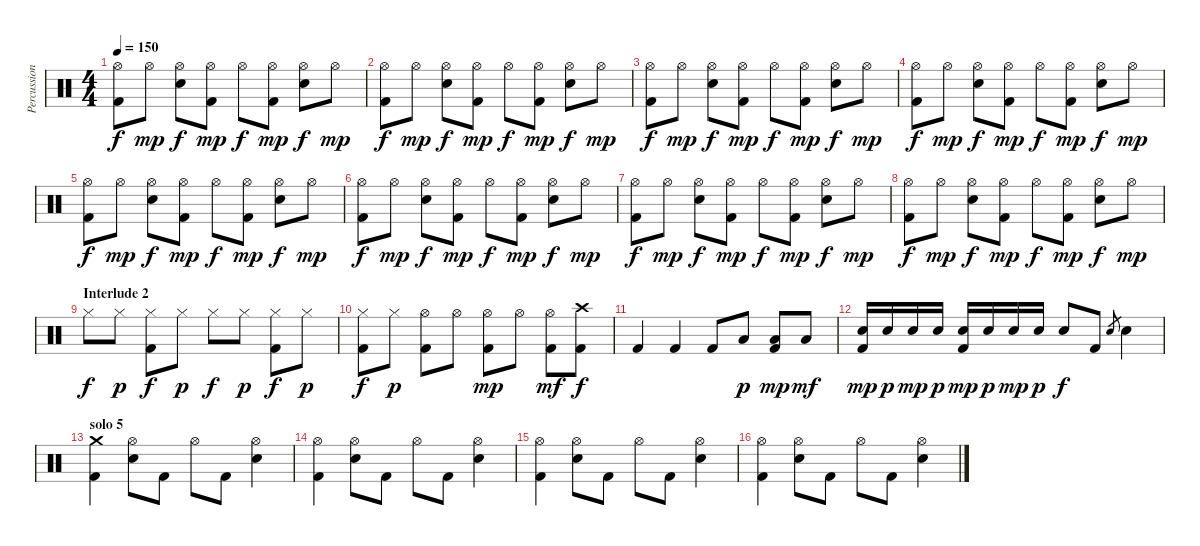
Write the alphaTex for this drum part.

\track ("Percussions" "Percussion") {instrument percussion}
\staff {score}
\articulation defaults
\ts (4 4)
\tempo 150
\clef neutral
\ks c
("Hi-Hat (open)" "Kick (hit) 2").8{dy f} "Hi-Hat (open)".8{dy mp} ("Hi-Hat (open)" "Electric Snare (hit)").8{dy f} ("Hi-Hat (open)" "Kick (hit) 2").8{dy mp} "Hi-Hat (open)".8{dy f} ("Hi-Hat (open)" "Kick (hit) 2").8{dy mp} ("Hi-Hat (open)" "Electric Snare (hit)").8{dy f} "Hi-Hat (open)".8{dy mp} |
("Hi-Hat (open)" "Kick (hit) 2").8{dy f} "Hi-Hat (open)".8{dy mp} ("Hi-Hat (open)" "Electric Snare (hit)").8{dy f} ("Hi-Hat (open)" "Kick (hit) 2").8{dy mp} "Hi-Hat (open)".8{dy f} ("Hi-Hat (open)" "Kick (hit) 2").8{dy mp} ("Hi-Hat (open)" "Electric Snare (hit)").8{dy f} "Hi-Hat (open)".8{dy mp} |
("Hi-Hat (open)" "Kick (hit) 2").8{dy f} "Hi-Hat (open)".8{dy mp} ("Hi-Hat (open)" "Electric Snare (hit)").8{dy f} ("Hi-Hat (open)" "Kick (hit) 2").8{dy mp} "Hi-Hat (open)".8{dy f} ("Hi-Hat (open)" "Kick (hit) 2").8{dy mp} ("Hi-Hat (open)" "Electric Snare (hit)").8{dy f} "Hi-Hat (open)".8{dy mp} |
("Hi-Hat (open)" "Kick (hit) 2").8{dy f} "Hi-Hat (open)".8{dy mp} ("Hi-Hat (open)" "Electric Snare (hit)").8{dy f} ("Hi-Hat (open)" "Kick (hit) 2").8{dy mp} "Hi-Hat (open)".8{dy f} ("Hi-Hat (open)" "Kick (hit) 2").8{dy mp} ("Hi-Hat (open)" "Electric Snare (hit)").8{dy f} "Hi-Hat (open)".8{dy mp} |
("Hi-Hat (open)" "Kick (hit) 2").8{dy f} "Hi-Hat (open)".8{dy mp} ("Hi-Hat (open)" "Electric Snare (hit)").8{dy f} ("Hi-Hat (open)" "Kick (hit) 2").8{dy mp} "Hi-Hat (open)".8{dy f} ("Hi-Hat (open)" "Kick (hit) 2").8{dy mp} ("Hi-Hat (open)" "Electric Snare (hit)").8{dy f} "Hi-Hat (open)".8{dy mp} |
("Hi-Hat (open)" "Kick (hit) 2").8{dy f} "Hi-Hat (open)".8{dy mp} ("Hi-Hat (open)" "Electric Snare (hit)").8{dy f} ("Hi-Hat (open)" "Kick (hit) 2").8{dy mp} "Hi-Hat (open)".8{dy f} ("Hi-Hat (open)" "Kick (hit) 2").8{dy mp} ("Hi-Hat (open)" "Electric Snare (hit)").8{dy f} "Hi-Hat (open)".8{dy mp} |
("Hi-Hat (open)" "Kick (hit) 2").8{dy f} "Hi-Hat (open)".8{dy mp} ("Hi-Hat (open)" "Electric Snare (hit)").8{dy f} ("Hi-Hat (open)" "Kick (hit) 2").8{dy mp} "Hi-Hat (open)".8{dy f} ("Hi-Hat (open)" "Kick (hit) 2").8{dy mp} ("Hi-Hat (open)" "Electric Snare (hit)").8{dy f} "Hi-Hat (open)".8{dy mp} |
("Hi-Hat (open)" "Kick (hit) 2").8{dy f} "Hi-Hat (open)".8{dy mp} ("Hi-Hat (open)" "Electric Snare (hit)").8{dy f} ("Hi-Hat (open)" "Kick (hit) 2").8{dy mp} "Hi-Hat (open)".8{dy f} ("Hi-Hat (open)" "Kick (hit) 2").8{dy mp} ("Hi-Hat (open)" "Electric Snare (hit)").8{dy f} "Hi-Hat (open)".8{dy mp} |
\section ("" "Interlude 2")
"Hi-Hat (closed)".8{dy f} "Hi-Hat (closed)".8{dy p} ("Hi-Hat (closed)" "Kick (hit) 2").8{dy f} "Hi-Hat (closed)".8{dy p} "Hi-Hat (closed)".8{dy f} "Hi-Hat (closed)".8{dy p} ("Hi-Hat (closed)" "Kick (hit) 2").8{dy f} "Hi-Hat (closed)".8{dy p} |
("Hi-Hat (closed)" "Kick (hit) 2").8{dy f} "Hi-Hat (closed)".8{dy p} ("Hi-Hat (open)" "Kick (hit) 2").8 "Hi-Hat (open)".8 ("Hi-Hat (open)" "Kick (hit) 2").8{dy mp} "Hi-Hat (open)".8 ("Hi-Hat (open)" "Kick (hit) 2").8{dy mf} ("Crash high (hit)" "Kick (hit) 2").8{dy f} |
"Kick (hit) 2".4 "Kick (hit) 2".4 "Kick (hit) 2".8 "Low Tom (hit)".8{dy p} ("Low Tom (hit)" "Kick (hit) 2").8{dy mp} "Low Tom (hit)".8{dy mf} |
("Electric Snare (hit)" "Kick (hit) 2").16{dy mp} "Electric Snare (hit)".16{dy p} "Electric Snare (hit)".16{dy mp} "Electric Snare (hit)".16{dy p} ("Electric Snare (hit)" "Kick (hit) 2").16{dy mp} "Electric Snare (hit)".16{dy p} "Electric Snare (hit)".16{dy mp} "Electric Snare (hit)".16{dy p} "Electric Snare (hit)".8{dy f} "Kick (hit) 2".8 "Electric Snare (hit)".8{gr} "Electric Snare (hit)".4 |
\section ("" "solo 5")
("Crash medium (hit)" "Kick (hit) 2").4 ("Hi-Hat (open)" "Electric Snare (hit)").8 "Kick (hit) 2".8 "Hi-Hat (open)".8 "Kick (hit) 2".8 ("Hi-Hat (open)" "Electric Snare (hit)").4 |
("Hi-Hat (open)" "Kick (hit) 2").4 ("Hi-Hat (open)" "Electric Snare (hit)").8 "Kick (hit) 2".8 "Hi-Hat (open)".8 "Kick (hit) 2".8 ("Hi-Hat (open)" "Electric Snare (hit)").4 |
("Hi-Hat (open)" "Kick (hit) 2").4 ("Hi-Hat (open)" "Electric Snare (hit)").8 "Kick (hit) 2".8 "Hi-Hat (open)".8 "Kick (hit) 2".8 ("Hi-Hat (open)" "Electric Snare (hit)").4 |
("Hi-Hat (open)" "Kick (hit) 2").4 ("Hi-Hat (open)" "Electric Snare (hit)").8 "Kick (hit) 2".8 "Hi-Hat (open)".8 "Kick (hit) 2".8 ("Hi-Hat (open)" "Electric Snare (hit)").4
